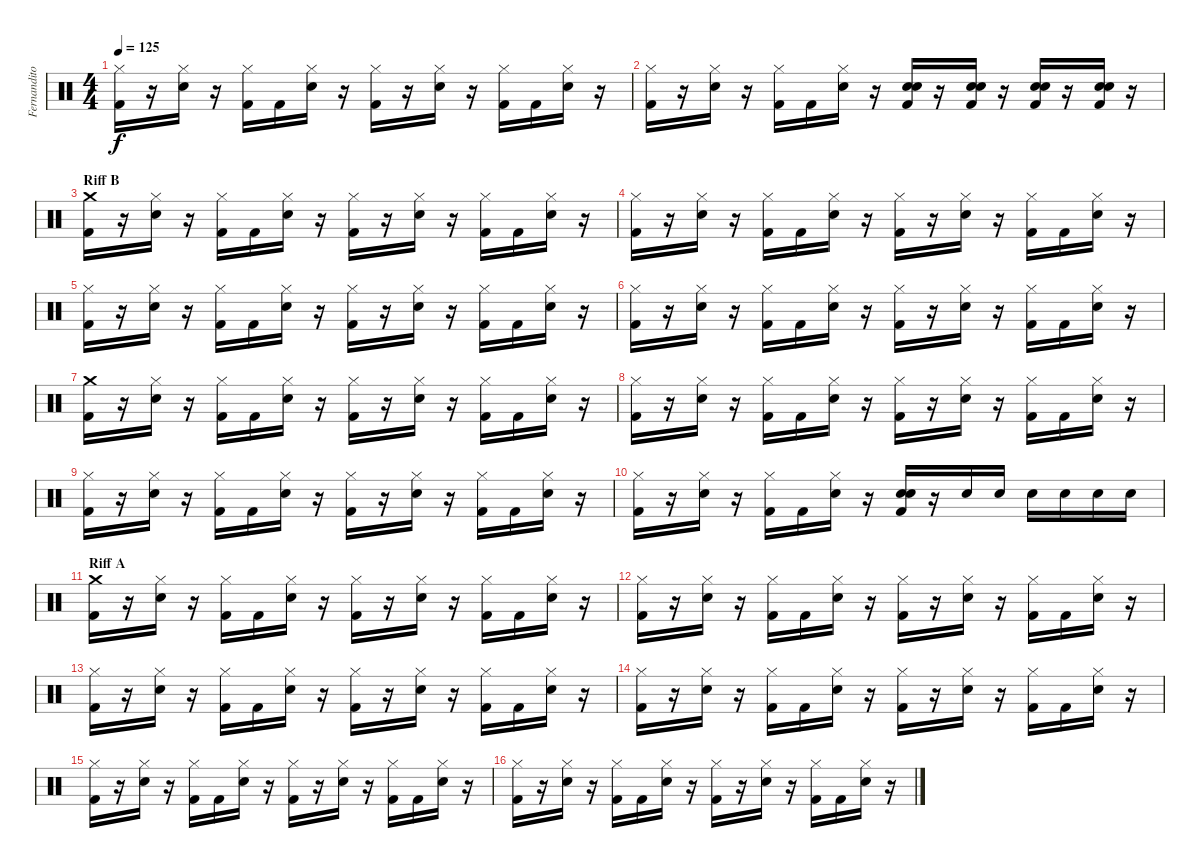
\track ("Fernandito" "Fernandito") {instrument percussion}
\staff {score}
\articulation defaults
\ts (4 4)
\tempo 125
\clef neutral
\ks c
("Hi-Hat (closed)" "Kick (hit) 2").16{dy f} r.16 ("Hi-Hat (closed)" "Snare (hit) 2").16 r.16 ("Hi-Hat (closed)" "Kick (hit) 2").16 "Kick (hit) 2".16 ("Hi-Hat (closed)" "Snare (hit) 2").16 r.16 ("Hi-Hat (closed)" "Kick (hit) 2").16 r.16 ("Hi-Hat (closed)" "Snare (hit) 2").16 r.16 ("Hi-Hat (closed)" "Kick (hit) 2").16 "Kick (hit) 2".16 ("Hi-Hat (closed)" "Snare (hit) 2").16 r.16 |
("Hi-Hat (closed)" "Kick (hit) 2").16 r.16 ("Hi-Hat (closed)" "Snare (hit) 2").16 r.16 ("Hi-Hat (closed)" "Kick (hit) 2").16 "Kick (hit) 2".16 ("Hi-Hat (closed)" "Snare (hit) 2").16 r.16 ("Snare (hit) 2" "Snare (hit) 2" "Kick (hit) 2").16 r.16 ("Snare (hit) 2" "Snare (hit) 2" "Kick (hit) 2").16 r.16 ("Snare (hit) 2" "Snare (hit) 2" "Kick (hit) 2").16 r.16 ("Snare (hit) 2" "Snare (hit) 2" "Kick (hit) 2").16 r.16 |
\section ("" "Riff B")
("Crash medium (hit)" "Kick (hit) 2").16 r.16 ("Hi-Hat (closed)" "Snare (hit) 2").16 r.16 ("Hi-Hat (closed)" "Kick (hit) 2").16 "Kick (hit) 2".16 ("Hi-Hat (closed)" "Snare (hit) 2").16 r.16 ("Hi-Hat (closed)" "Kick (hit) 2").16 r.16 ("Hi-Hat (closed)" "Snare (hit) 2").16 r.16 ("Hi-Hat (closed)" "Kick (hit) 2").16 "Kick (hit) 2".16 ("Hi-Hat (closed)" "Snare (hit) 2").16 r.16 |
("Hi-Hat (closed)" "Kick (hit) 2").16 r.16 ("Hi-Hat (closed)" "Snare (hit) 2").16 r.16 ("Hi-Hat (closed)" "Kick (hit) 2").16 "Kick (hit) 2".16 ("Hi-Hat (closed)" "Snare (hit) 2").16 r.16 ("Hi-Hat (closed)" "Kick (hit) 2").16 r.16 ("Hi-Hat (closed)" "Snare (hit) 2").16 r.16 ("Hi-Hat (closed)" "Kick (hit) 2").16 "Kick (hit) 2".16 ("Hi-Hat (closed)" "Snare (hit) 2").16 r.16 |
("Hi-Hat (closed)" "Kick (hit) 2").16 r.16 ("Hi-Hat (closed)" "Snare (hit) 2").16 r.16 ("Hi-Hat (closed)" "Kick (hit) 2").16 "Kick (hit) 2".16 ("Hi-Hat (closed)" "Snare (hit) 2").16 r.16 ("Hi-Hat (closed)" "Kick (hit) 2").16 r.16 ("Hi-Hat (closed)" "Snare (hit) 2").16 r.16 ("Hi-Hat (closed)" "Kick (hit) 2").16 "Kick (hit) 2".16 ("Hi-Hat (closed)" "Snare (hit) 2").16 r.16 |
("Hi-Hat (closed)" "Kick (hit) 2").16 r.16 ("Hi-Hat (closed)" "Snare (hit) 2").16 r.16 ("Hi-Hat (closed)" "Kick (hit) 2").16 "Kick (hit) 2".16 ("Hi-Hat (closed)" "Snare (hit) 2").16 r.16 ("Hi-Hat (closed)" "Kick (hit) 2").16 r.16 ("Hi-Hat (closed)" "Snare (hit) 2").16 r.16 ("Hi-Hat (closed)" "Kick (hit) 2").16 "Kick (hit) 2".16 ("Hi-Hat (closed)" "Snare (hit) 2").16 r.16 |
("Crash medium (hit)" "Kick (hit) 2").16 r.16 ("Hi-Hat (closed)" "Snare (hit) 2").16 r.16 ("Hi-Hat (closed)" "Kick (hit) 2").16 "Kick (hit) 2".16 ("Hi-Hat (closed)" "Snare (hit) 2").16 r.16 ("Hi-Hat (closed)" "Kick (hit) 2").16 r.16 ("Hi-Hat (closed)" "Snare (hit) 2").16 r.16 ("Hi-Hat (closed)" "Kick (hit) 2").16 "Kick (hit) 2".16 ("Hi-Hat (closed)" "Snare (hit) 2").16 r.16 |
("Hi-Hat (closed)" "Kick (hit) 2").16 r.16 ("Hi-Hat (closed)" "Snare (hit) 2").16 r.16 ("Hi-Hat (closed)" "Kick (hit) 2").16 "Kick (hit) 2".16 ("Hi-Hat (closed)" "Snare (hit) 2").16 r.16 ("Hi-Hat (closed)" "Kick (hit) 2").16 r.16 ("Hi-Hat (closed)" "Snare (hit) 2").16 r.16 ("Hi-Hat (closed)" "Kick (hit) 2").16 "Kick (hit) 2".16 ("Hi-Hat (closed)" "Snare (hit) 2").16 r.16 |
("Hi-Hat (closed)" "Kick (hit) 2").16 r.16 ("Hi-Hat (closed)" "Snare (hit) 2").16 r.16 ("Hi-Hat (closed)" "Kick (hit) 2").16 "Kick (hit) 2".16 ("Hi-Hat (closed)" "Snare (hit) 2").16 r.16 ("Hi-Hat (closed)" "Kick (hit) 2").16 r.16 ("Hi-Hat (closed)" "Snare (hit) 2").16 r.16 ("Hi-Hat (closed)" "Kick (hit) 2").16 "Kick (hit) 2".16 ("Hi-Hat (closed)" "Snare (hit) 2").16 r.16 |
("Hi-Hat (closed)" "Kick (hit) 2").16 r.16 ("Hi-Hat (closed)" "Snare (hit) 2").16 r.16 ("Hi-Hat (closed)" "Kick (hit) 2").16 "Kick (hit) 2".16 ("Hi-Hat (closed)" "Snare (hit) 2").16 r.16 ("Snare (hit) 2" "Snare (hit) 2" "Kick (hit) 2").16 r.16 "Snare (hit) 2".16 "Snare (hit) 2".16 "Snare (hit) 2".16 "Snare (hit) 2".16 "Snare (hit) 2".16 "Snare (hit) 2".16 |
\section ("" "Riff A")
("Crash medium (hit)" "Kick (hit) 2").16 r.16 ("Hi-Hat (closed)" "Snare (hit) 2").16 r.16 ("Hi-Hat (closed)" "Kick (hit) 2").16 "Kick (hit) 2".16 ("Hi-Hat (closed)" "Snare (hit) 2").16 r.16 ("Hi-Hat (closed)" "Kick (hit) 2").16 r.16 ("Hi-Hat (closed)" "Snare (hit) 2").16 r.16 ("Hi-Hat (closed)" "Kick (hit) 2").16 "Kick (hit) 2".16 ("Hi-Hat (closed)" "Snare (hit) 2").16 r.16 |
("Hi-Hat (closed)" "Kick (hit) 2").16 r.16 ("Hi-Hat (closed)" "Snare (hit) 2").16 r.16 ("Hi-Hat (closed)" "Kick (hit) 2").16 "Kick (hit) 2".16 ("Hi-Hat (closed)" "Snare (hit) 2").16 r.16 ("Hi-Hat (closed)" "Kick (hit) 2").16 r.16 ("Hi-Hat (closed)" "Snare (hit) 2").16 r.16 ("Hi-Hat (closed)" "Kick (hit) 2").16 "Kick (hit) 2".16 ("Hi-Hat (closed)" "Snare (hit) 2").16 r.16 |
("Hi-Hat (closed)" "Kick (hit) 2").16 r.16 ("Hi-Hat (closed)" "Snare (hit) 2").16 r.16 ("Hi-Hat (closed)" "Kick (hit) 2").16 "Kick (hit) 2".16 ("Hi-Hat (closed)" "Snare (hit) 2").16 r.16 ("Hi-Hat (closed)" "Kick (hit) 2").16 r.16 ("Hi-Hat (closed)" "Snare (hit) 2").16 r.16 ("Hi-Hat (closed)" "Kick (hit) 2").16 "Kick (hit) 2".16 ("Hi-Hat (closed)" "Snare (hit) 2").16 r.16 |
("Hi-Hat (closed)" "Kick (hit) 2").16 r.16 ("Hi-Hat (closed)" "Snare (hit) 2").16 r.16 ("Hi-Hat (closed)" "Kick (hit) 2").16 "Kick (hit) 2".16 ("Hi-Hat (closed)" "Snare (hit) 2").16 r.16 ("Hi-Hat (closed)" "Kick (hit) 2").16 r.16 ("Hi-Hat (closed)" "Snare (hit) 2").16 r.16 ("Hi-Hat (closed)" "Kick (hit) 2").16 "Kick (hit) 2".16 ("Hi-Hat (closed)" "Snare (hit) 2").16 r.16 |
("Hi-Hat (closed)" "Kick (hit) 2").16 r.16 ("Hi-Hat (closed)" "Snare (hit) 2").16 r.16 ("Hi-Hat (closed)" "Kick (hit) 2").16 "Kick (hit) 2".16 ("Hi-Hat (closed)" "Snare (hit) 2").16 r.16 ("Hi-Hat (closed)" "Kick (hit) 2").16 r.16 ("Hi-Hat (closed)" "Snare (hit) 2").16 r.16 ("Hi-Hat (closed)" "Kick (hit) 2").16 "Kick (hit) 2".16 ("Hi-Hat (closed)" "Snare (hit) 2").16 r.16 |
("Hi-Hat (closed)" "Kick (hit) 2").16 r.16 ("Hi-Hat (closed)" "Snare (hit) 2").16 r.16 ("Hi-Hat (closed)" "Kick (hit) 2").16 "Kick (hit) 2".16 ("Hi-Hat (closed)" "Snare (hit) 2").16 r.16 ("Hi-Hat (closed)" "Kick (hit) 2").16 r.16 ("Hi-Hat (closed)" "Snare (hit) 2").16 r.16 ("Hi-Hat (closed)" "Kick (hit) 2").16 "Kick (hit) 2".16 ("Hi-Hat (closed)" "Snare (hit) 2").16 r.16
